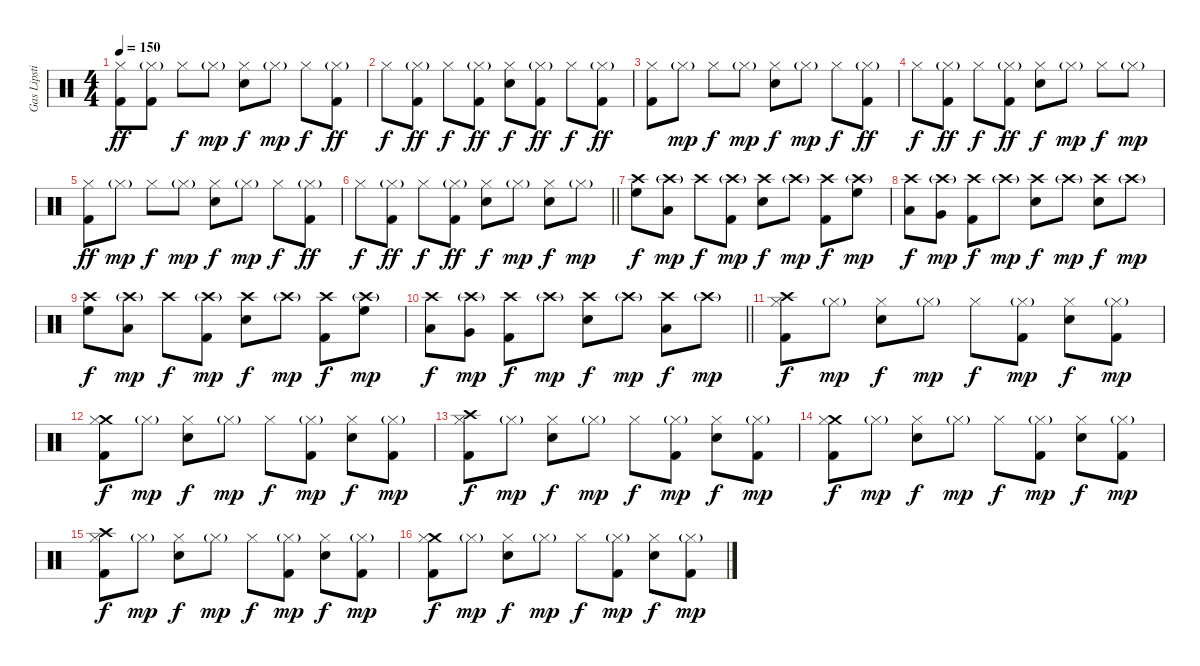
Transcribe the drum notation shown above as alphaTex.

\track ("Gas Lipstick" "Gas Lipsti") {instrument percussion}
\staff {score}
\articulation defaults
\ts (4 4)
\tempo 150
\clef neutral
\ks c
("Hi-Hat (closed)" "Kick (hit) 2").8{dy ff} ("Hi-Hat (closed)"{g} "Kick (hit) 2").8 "Hi-Hat (closed)".8{dy f} "Hi-Hat (closed)"{g}.8{dy mp} ("Hi-Hat (closed)" "Snare (hit) 2").8{dy f} "Hi-Hat (closed)"{g}.8{dy mp} "Hi-Hat (closed)".8{dy f} ("Hi-Hat (closed)"{g} "Kick (hit) 2").8{dy ff} |
"Hi-Hat (closed)".8{dy f} ("Hi-Hat (closed)"{g} "Kick (hit) 2").8{dy ff} "Hi-Hat (closed)".8{dy f} ("Hi-Hat (closed)"{g} "Kick (hit) 2").8{dy ff} ("Hi-Hat (closed)" "Snare (hit) 2").8{dy f} ("Hi-Hat (closed)"{g} "Kick (hit) 2").8{dy ff} "Hi-Hat (closed)".8{dy f} ("Hi-Hat (closed)"{g} "Kick (hit) 2").8{dy ff} |
("Hi-Hat (closed)" "Kick (hit) 2").8 "Hi-Hat (closed)"{g}.8{dy mp} "Hi-Hat (closed)".8{dy f} "Hi-Hat (closed)"{g}.8{dy mp} ("Hi-Hat (closed)" "Snare (hit) 2").8{dy f} "Hi-Hat (closed)"{g}.8{dy mp} "Hi-Hat (closed)".8{dy f} ("Hi-Hat (closed)"{g} "Kick (hit) 2").8{dy ff} |
"Hi-Hat (closed)".8{dy f} ("Hi-Hat (closed)"{g} "Kick (hit) 2").8{dy ff} "Hi-Hat (closed)".8{dy f} ("Hi-Hat (closed)"{g} "Kick (hit) 2").8{dy ff} ("Hi-Hat (closed)" "Snare (hit) 2").8{dy f} "Hi-Hat (closed)"{g}.8{dy mp} "Hi-Hat (closed)".8{dy f} "Hi-Hat (closed)"{g}.8{dy mp} |
("Hi-Hat (closed)" "Kick (hit) 2").8{dy ff} "Hi-Hat (closed)"{g}.8{dy mp} "Hi-Hat (closed)".8{dy f} "Hi-Hat (closed)"{g}.8{dy mp} ("Hi-Hat (closed)" "Snare (hit) 2").8{dy f} "Hi-Hat (closed)"{g}.8{dy mp} "Hi-Hat (closed)".8{dy f} ("Hi-Hat (closed)"{g} "Kick (hit) 2").8{dy ff} |
\barLineRight lightlight "Hi-Hat (closed)".8{dy f}
("Hi-Hat (closed)"{g} "Kick (hit) 2").8{dy ff} "Hi-Hat (closed)".8{dy f} ("Hi-Hat (closed)"{g} "Kick (hit) 2").8{dy ff} ("Hi-Hat (closed)" "Snare (hit) 2").8{dy f} "Hi-Hat (closed)"{g}.8{dy mp} ("Hi-Hat (closed)" "Snare (hit) 2").8{dy f} "Hi-Hat (closed)"{g}.8{dy mp} |
("Crash high (hit)" "High Floor Tom (hit)").8{dy f} ("Crash high (hit)"{g} "Low Tom (hit)").8{dy mp} "Crash high (hit)".8{dy f} ("Crash high (hit)"{g} "Kick (hit) 2").8{dy mp} ("Crash high (hit)" "Snare (hit) 2").8{dy f} "Crash high (hit)"{g}.8{dy mp} ("Crash high (hit)" "Kick (hit) 2").8{dy f} ("Crash high (hit)"{g} "High Floor Tom (hit)").8{dy mp} |
("Crash high (hit)" "Low Tom (hit)").8{dy f} ("Crash high (hit)"{g} "Very Low Tom (hit)").8{dy mp} ("Crash high (hit)" "Kick (hit) 2").8{dy f} "Crash high (hit)"{g}.8{dy mp} ("Crash high (hit)" "Snare (hit) 2").8{dy f} "Crash high (hit)"{g}.8{dy mp} ("Crash high (hit)" "Snare (hit) 2").8{dy f} "Crash high (hit)"{g}.8{dy mp} |
("Crash high (hit)" "High Floor Tom (hit)").8{dy f} ("Crash high (hit)"{g} "Low Tom (hit)").8{dy mp} "Crash high (hit)".8{dy f} ("Crash high (hit)"{g} "Kick (hit) 2").8{dy mp} ("Crash high (hit)" "Snare (hit) 2").8{dy f} "Crash high (hit)"{g}.8{dy mp} ("Crash high (hit)" "Kick (hit) 2").8{dy f} ("Crash high (hit)"{g} "High Floor Tom (hit)").8{dy mp} |
\barLineRight lightlight
("Crash high (hit)" "Low Tom (hit)").8{dy f} ("Crash high (hit)"{g} "Very Low Tom (hit)").8{dy mp} ("Crash high (hit)" "Kick (hit) 2").8{dy f} "Crash high (hit)"{g}.8{dy mp} ("Crash high (hit)" "Snare (hit) 2").8{dy f} "Crash high (hit)"{g}.8{dy mp} ("Crash high (hit)" "Low Tom (hit)").8{dy f} "Crash high (hit)"{g}.8{dy mp} |
("Crash high (hit)" "Hi-Hat (closed)" "Kick (hit) 2").8{dy f} "Hi-Hat (closed)"{g}.8{dy mp} ("Hi-Hat (closed)" "Snare (hit) 2").8{dy f} "Hi-Hat (closed)"{g}.8{dy mp} "Hi-Hat (closed)".8{dy f} ("Hi-Hat (closed)"{g} "Kick (hit) 2").8{dy mp} ("Hi-Hat (closed)" "Snare (hit) 2").8{dy f} ("Hi-Hat (closed)"{g} "Kick (hit) 2").8{dy mp} |
("Crash medium (hit)" "Hi-Hat (closed)" "Kick (hit) 2").8{dy f} "Hi-Hat (closed)"{g}.8{dy mp} ("Hi-Hat (closed)" "Snare (hit) 2").8{dy f} "Hi-Hat (closed)"{g}.8{dy mp} "Hi-Hat (closed)".8{dy f} ("Hi-Hat (closed)"{g} "Kick (hit) 2").8{dy mp} ("Hi-Hat (closed)" "Snare (hit) 2").8{dy f} ("Hi-Hat (closed)"{g} "Kick (hit) 2").8{dy mp} |
("Crash high (hit)" "Hi-Hat (closed)" "Kick (hit) 2").8{dy f} "Hi-Hat (closed)"{g}.8{dy mp} ("Hi-Hat (closed)" "Snare (hit) 2").8{dy f} "Hi-Hat (closed)"{g}.8{dy mp} "Hi-Hat (closed)".8{dy f} ("Hi-Hat (closed)"{g} "Kick (hit) 2").8{dy mp} ("Hi-Hat (closed)" "Snare (hit) 2").8{dy f} ("Hi-Hat (closed)"{g} "Kick (hit) 2").8{dy mp} |
("Crash medium (hit)" "Hi-Hat (closed)" "Kick (hit) 2").8{dy f} "Hi-Hat (closed)"{g}.8{dy mp} ("Hi-Hat (closed)" "Snare (hit) 2").8{dy f} "Hi-Hat (closed)"{g}.8{dy mp} "Hi-Hat (closed)".8{dy f} ("Hi-Hat (closed)"{g} "Kick (hit) 2").8{dy mp} ("Hi-Hat (closed)" "Snare (hit) 2").8{dy f} ("Hi-Hat (closed)"{g} "Kick (hit) 2").8{dy mp} |
("Crash high (hit)" "Hi-Hat (closed)" "Kick (hit) 2").8{dy f} "Hi-Hat (closed)"{g}.8{dy mp} ("Hi-Hat (closed)" "Snare (hit) 2").8{dy f} "Hi-Hat (closed)"{g}.8{dy mp} "Hi-Hat (closed)".8{dy f} ("Hi-Hat (closed)"{g} "Kick (hit) 2").8{dy mp} ("Hi-Hat (closed)" "Snare (hit) 2").8{dy f} ("Hi-Hat (closed)"{g} "Kick (hit) 2").8{dy mp} |
("Crash medium (hit)" "Hi-Hat (closed)" "Kick (hit) 2").8{dy f} "Hi-Hat (closed)"{g}.8{dy mp} ("Hi-Hat (closed)" "Snare (hit) 2").8{dy f} "Hi-Hat (closed)"{g}.8{dy mp} "Hi-Hat (closed)".8{dy f} ("Hi-Hat (closed)"{g} "Kick (hit) 2").8{dy mp} ("Hi-Hat (closed)" "Snare (hit) 2").8{dy f} ("Hi-Hat (closed)"{g} "Kick (hit) 2").8{dy mp}
